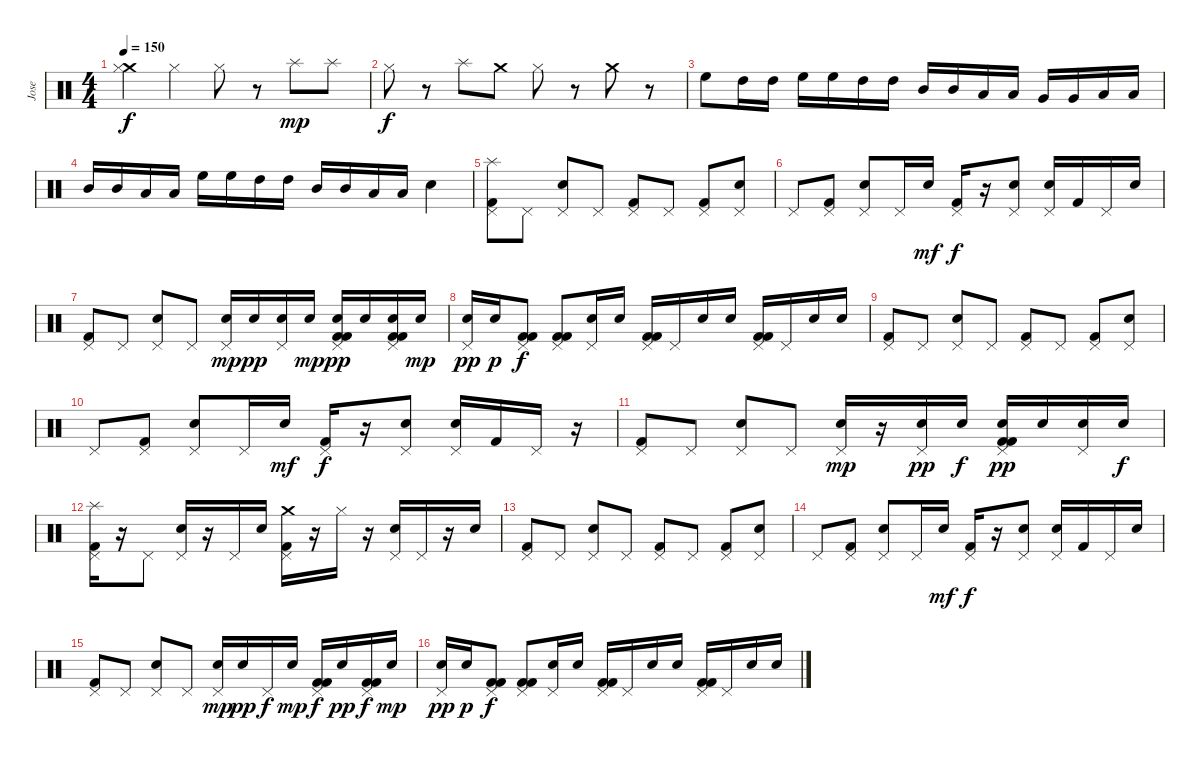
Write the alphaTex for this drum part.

\track ("Jose" "Jose") {instrument percussion}
\staff {score}
\articulation defaults
\ts (4 4)
\tempo 150
\clef neutral
\ks c
("Crash medium (hit)" "Hi-Hat (closed)").4{dy f} "Hi-Hat (closed)".4 "Hi-Hat (closed)".8 r.8 "Splash (hit)".8{dy mp} "Splash (hit)".8 |
"Hi-Hat (closed)".8{dy f} r.8 "Splash (hit)".8 "Crash medium (hit)".8 "Hi-Hat (closed)".8 r.8 "Crash medium (hit)".8 r.8 |
"High Floor Tom (hit)".8 "High Tom (hit)".16 "High Tom (hit)".16 "High Floor Tom (hit)".16 "High Floor Tom (hit)".16 "High Tom (hit)".16 "High Tom (hit)".16 "Mid Tom (hit)".16 "Mid Tom (hit)".16 "Low Tom (hit)".16 "Low Tom (hit)".16 "Very Low Tom (hit)".16 "Very Low Tom (hit)".16 "Low Floor Tom (hit)".16 "Low Floor Tom (hit)".16 |
"Mid Tom (hit)".16 "Mid Tom (hit)".16 "Low Tom (hit)".16 "Low Tom (hit)".16 "High Floor Tom (hit)".16 "High Floor Tom (hit)".16 "High Tom (hit)".16 "High Tom (hit)".16 "Mid Tom (hit)".16 "Mid Tom (hit)".16 "Low Tom (hit)".16 "Low Tom (hit)".16 "Electric Snare (hit)".4 |
("Pedal Hi-Hat (hit)" "Splash (hit)" "Kick (hit) 2").8 "Pedal Hi-Hat (hit)".8 ("Pedal Hi-Hat (hit)" "Electric Snare (hit)").8 "Pedal Hi-Hat (hit)".8 ("Pedal Hi-Hat (hit)" "Kick (hit) 2").8 "Pedal Hi-Hat (hit)".8 ("Pedal Hi-Hat (hit)" "Kick (hit) 2").8 ("Pedal Hi-Hat (hit)" "Electric Snare (hit)").8 |
"Pedal Hi-Hat (hit)".8 ("Pedal Hi-Hat (hit)" "Kick (hit) 2").8 ("Pedal Hi-Hat (hit)" "Electric Snare (hit)").8 "Pedal Hi-Hat (hit)".16 "Electric Snare (hit)".16{dy mf} ("Pedal Hi-Hat (hit)" "Kick (hit) 2").16{dy f} r.16 ("Pedal Hi-Hat (hit)" "Electric Snare (hit)").8 ("Pedal Hi-Hat (hit)" "Electric Snare (hit)").16 "Kick (hit) 2".16 "Pedal Hi-Hat (hit)".16 "Electric Snare (hit)".16 |
("Pedal Hi-Hat (hit)" "Kick (hit) 2").8 "Pedal Hi-Hat (hit)".8 ("Pedal Hi-Hat (hit)" "Electric Snare (hit)").8 "Pedal Hi-Hat (hit)".8 ("Pedal Hi-Hat (hit)" "Electric Snare (hit)").16{dy mp} "Electric Snare (hit)".16{dy pp} ("Pedal Hi-Hat (hit)" "Electric Snare (hit)").16 "Electric Snare (hit)".16{dy mp} ("Pedal Hi-Hat (hit)" "Electric Snare (hit)" "Kick (hit) 2" "Kick (hit) 2").16{dy pp} "Electric Snare (hit)".16 ("Pedal Hi-Hat (hit)" "Electric Snare (hit)" "Kick (hit) 2" "Kick (hit) 2").16 "Electric Snare (hit)".16{dy mp} |
("Pedal Hi-Hat (hit)" "Electric Snare (hit)").16{dy pp} "Electric Snare (hit)".16{dy p} ("Pedal Hi-Hat (hit)" "Kick (hit) 2" "Kick (hit) 2").8{dy f} ("Pedal Hi-Hat (hit)" "Kick (hit) 2" "Kick (hit) 2").8 ("Pedal Hi-Hat (hit)" "Electric Snare (hit)").16 "Electric Snare (hit)".16 ("Pedal Hi-Hat (hit)" "Kick (hit) 2" "Kick (hit) 2").16 "Pedal Hi-Hat (hit)".16 "Electric Snare (hit)".16 "Electric Snare (hit)".16 ("Pedal Hi-Hat (hit)" "Kick (hit) 2" "Kick (hit) 2").16 "Pedal Hi-Hat (hit)".16 "Electric Snare (hit)".16 "Electric Snare (hit)".16 |
("Pedal Hi-Hat (hit)" "Kick (hit) 2").8 "Pedal Hi-Hat (hit)".8 ("Pedal Hi-Hat (hit)" "Electric Snare (hit)").8 "Pedal Hi-Hat (hit)".8 ("Pedal Hi-Hat (hit)" "Kick (hit) 2").8 "Pedal Hi-Hat (hit)".8 ("Pedal Hi-Hat (hit)" "Kick (hit) 2").8 ("Pedal Hi-Hat (hit)" "Electric Snare (hit)").8 |
"Pedal Hi-Hat (hit)".8 ("Pedal Hi-Hat (hit)" "Kick (hit) 2").8 ("Pedal Hi-Hat (hit)" "Electric Snare (hit)").8 "Pedal Hi-Hat (hit)".16 "Electric Snare (hit)".16{dy mf} ("Pedal Hi-Hat (hit)" "Kick (hit) 2").16{dy f} r.16 ("Pedal Hi-Hat (hit)" "Electric Snare (hit)").8 ("Pedal Hi-Hat (hit)" "Electric Snare (hit)").16 "Kick (hit) 2".16 "Pedal Hi-Hat (hit)".16 r.16 |
("Pedal Hi-Hat (hit)" "Kick (hit) 2").8 "Pedal Hi-Hat (hit)".8 ("Pedal Hi-Hat (hit)" "Electric Snare (hit)").8 "Pedal Hi-Hat (hit)".8 ("Pedal Hi-Hat (hit)" "Electric Snare (hit)").16{dy mp} r.16 ("Pedal Hi-Hat (hit)" "Electric Snare (hit)").16{dy pp} "Electric Snare (hit)".16{dy f} ("Pedal Hi-Hat (hit)" "Electric Snare (hit)" "Kick (hit) 2" "Kick (hit) 2").16{dy pp} "Electric Snare (hit)".16 ("Pedal Hi-Hat (hit)" "Electric Snare (hit)").16 "Electric Snare (hit)".16{dy f} |
("Pedal Hi-Hat (hit)" "Splash (hit)" "Kick (hit) 2").16 r.16 "Pedal Hi-Hat (hit)".8 ("Pedal Hi-Hat (hit)" "Electric Snare (hit)").16 r.16 "Pedal Hi-Hat (hit)".16 "Electric Snare (hit)".16 ("Pedal Hi-Hat (hit)" "Crash medium (hit)" "Kick (hit) 2").16 r.16 "Hi-Hat (closed)".16 r.16 ("Pedal Hi-Hat (hit)" "Electric Snare (hit)").16 "Pedal Hi-Hat (hit)".16 r.16 "Electric Snare (hit)".16 |
("Pedal Hi-Hat (hit)" "Kick (hit) 2").8 "Pedal Hi-Hat (hit)".8 ("Pedal Hi-Hat (hit)" "Electric Snare (hit)").8 "Pedal Hi-Hat (hit)".8 ("Pedal Hi-Hat (hit)" "Kick (hit) 2").8 "Pedal Hi-Hat (hit)".8 ("Pedal Hi-Hat (hit)" "Kick (hit) 2").8 ("Pedal Hi-Hat (hit)" "Electric Snare (hit)").8 |
"Pedal Hi-Hat (hit)".8 ("Pedal Hi-Hat (hit)" "Kick (hit) 2").8 ("Pedal Hi-Hat (hit)" "Electric Snare (hit)").8 "Pedal Hi-Hat (hit)".16 "Electric Snare (hit)".16{dy mf} ("Pedal Hi-Hat (hit)" "Kick (hit) 2").16{dy f} r.16 ("Pedal Hi-Hat (hit)" "Electric Snare (hit)").8 ("Pedal Hi-Hat (hit)" "Electric Snare (hit)").16 "Kick (hit) 2".16 "Pedal Hi-Hat (hit)".16 "Electric Snare (hit)".16 |
("Pedal Hi-Hat (hit)" "Kick (hit) 2").8 "Pedal Hi-Hat (hit)".8 ("Pedal Hi-Hat (hit)" "Electric Snare (hit)").8 "Pedal Hi-Hat (hit)".8 ("Pedal Hi-Hat (hit)" "Electric Snare (hit)").16{dy mp} "Electric Snare (hit)".16{dy pp} "Pedal Hi-Hat (hit)".16{dy f} "Electric Snare (hit)".16{dy mp} ("Pedal Hi-Hat (hit)" "Kick (hit) 2" "Kick (hit) 2").16{dy f} "Electric Snare (hit)".16{dy pp} ("Pedal Hi-Hat (hit)" "Kick (hit) 2" "Kick (hit) 2").16{dy f} "Electric Snare (hit)".16{dy mp} |
("Pedal Hi-Hat (hit)" "Electric Snare (hit)").16{dy pp} "Electric Snare (hit)".16{dy p} ("Pedal Hi-Hat (hit)" "Kick (hit) 2" "Kick (hit) 2").8{dy f} ("Pedal Hi-Hat (hit)" "Kick (hit) 2" "Kick (hit) 2").8 ("Pedal Hi-Hat (hit)" "Electric Snare (hit)").16 "Electric Snare (hit)".16 ("Pedal Hi-Hat (hit)" "Kick (hit) 2" "Kick (hit) 2").16 "Pedal Hi-Hat (hit)".16 "Electric Snare (hit)".16 "Electric Snare (hit)".16 ("Pedal Hi-Hat (hit)" "Kick (hit) 2" "Kick (hit) 2").16 "Pedal Hi-Hat (hit)".16 "Electric Snare (hit)".16 "Electric Snare (hit)".16
